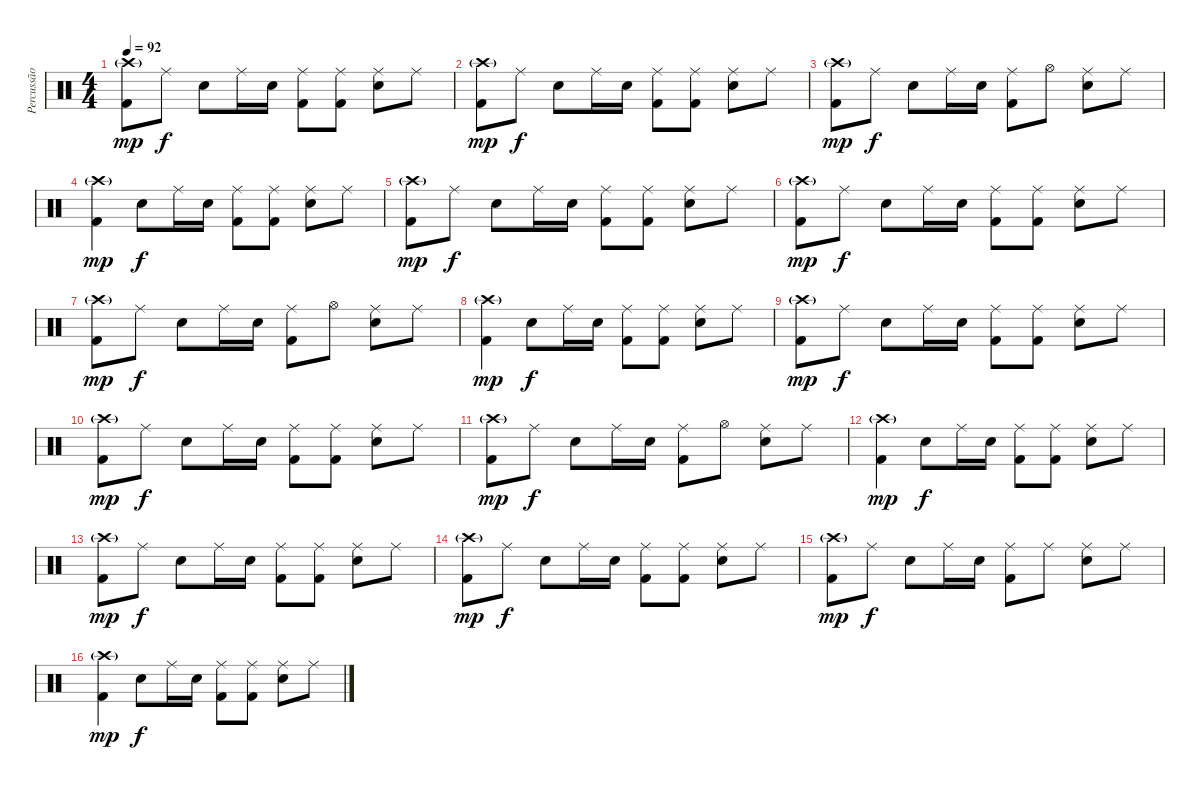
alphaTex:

\track ("Percussão - Drums" "Percussão ") {instrument percussion}
\staff {score}
\articulation defaults
\ts (4 4)
\tempo 92
\clef neutral
\ks c
("Crash high (hit)"{g} "Kick (hit) 2").8{dy mp} "Ride (middle)".8{dy f} "Snare (hit) 2".8 "Ride (middle)".16 "Snare (hit) 2".16 ("Ride (middle)" "Kick (hit) 2").8 ("Ride (middle)" "Kick (hit) 2").8 ("Ride (middle)" "Snare (hit) 2").8 "Ride (middle)".8 |
("Crash high (hit)"{g} "Kick (hit) 2").8{dy mp} "Ride (middle)".8{dy f} "Snare (hit) 2".8 "Ride (middle)".16 "Snare (hit) 2".16 ("Ride (middle)" "Kick (hit) 2").8 ("Ride (middle)" "Kick (hit) 2").8 ("Ride (middle)" "Snare (hit) 2").8 "Ride (middle)".8 |
("Crash high (hit)"{g} "Kick (hit) 2").8{dy mp} "Ride (middle)".8{dy f} "Snare (hit) 2".8 "Ride (middle)".16 "Snare (hit) 2".16 ("Ride (middle)" "Kick (hit) 2").8 "Hi-Hat (open)".8 ("Ride (middle)" "Snare (hit) 2").8 "Ride (middle)".8 |
("Crash high (hit)"{g} "Kick (hit) 2").4{dy mp} "Snare (hit) 2".8{dy f} "Ride (middle)".16 "Snare (hit) 2".16 ("Ride (middle)" "Kick (hit) 2").8 ("Ride (middle)" "Kick (hit) 2").8 ("Ride (middle)" "Snare (hit) 2").8 "Ride (middle)".8 |
("Crash high (hit)"{g} "Kick (hit) 2").8{dy mp} "Ride (middle)".8{dy f} "Snare (hit) 2".8 "Ride (middle)".16 "Snare (hit) 2".16 ("Ride (middle)" "Kick (hit) 2").8 ("Ride (middle)" "Kick (hit) 2").8 ("Ride (middle)" "Snare (hit) 2").8 "Ride (middle)".8 |
("Crash high (hit)"{g} "Kick (hit) 2").8{dy mp} "Ride (middle)".8{dy f} "Snare (hit) 2".8 "Ride (middle)".16 "Snare (hit) 2".16 ("Ride (middle)" "Kick (hit) 2").8 ("Ride (middle)" "Kick (hit) 2").8 ("Ride (middle)" "Snare (hit) 2").8 "Ride (middle)".8 |
("Crash high (hit)"{g} "Kick (hit) 2").8{dy mp} "Ride (middle)".8{dy f} "Snare (hit) 2".8 "Ride (middle)".16 "Snare (hit) 2".16 ("Ride (middle)" "Kick (hit) 2").8 "Hi-Hat (open)".8 ("Ride (middle)" "Snare (hit) 2").8 "Ride (middle)".8 |
("Crash high (hit)"{g} "Kick (hit) 2").4{dy mp} "Snare (hit) 2".8{dy f} "Ride (middle)".16 "Snare (hit) 2".16 ("Ride (middle)" "Kick (hit) 2").8 ("Ride (middle)" "Kick (hit) 2").8 ("Ride (middle)" "Snare (hit) 2").8 "Ride (middle)".8 |
("Crash high (hit)"{g} "Kick (hit) 2").8{dy mp} "Ride (middle)".8{dy f} "Snare (hit) 2".8 "Ride (middle)".16 "Snare (hit) 2".16 ("Ride (middle)" "Kick (hit) 2").8 ("Ride (middle)" "Kick (hit) 2").8 ("Ride (middle)" "Snare (hit) 2").8 "Ride (middle)".8 |
("Crash high (hit)"{g} "Kick (hit) 2").8{dy mp} "Ride (middle)".8{dy f} "Snare (hit) 2".8 "Ride (middle)".16 "Snare (hit) 2".16 ("Ride (middle)" "Kick (hit) 2").8 ("Ride (middle)" "Kick (hit) 2").8 ("Ride (middle)" "Snare (hit) 2").8 "Ride (middle)".8 |
("Crash high (hit)"{g} "Kick (hit) 2").8{dy mp} "Ride (middle)".8{dy f} "Snare (hit) 2".8 "Ride (middle)".16 "Snare (hit) 2".16 ("Ride (middle)" "Kick (hit) 2").8 "Hi-Hat (open)".8 ("Ride (middle)" "Snare (hit) 2").8 "Ride (middle)".8 |
("Crash high (hit)"{g} "Kick (hit) 2").4{dy mp} "Snare (hit) 2".8{dy f} "Ride (middle)".16 "Snare (hit) 2".16 ("Ride (middle)" "Kick (hit) 2").8 ("Ride (middle)" "Kick (hit) 2").8 ("Ride (middle)" "Snare (hit) 2").8 "Ride (middle)".8 |
("Crash high (hit)"{g} "Kick (hit) 2").8{dy mp} "Ride (middle)".8{dy f} "Snare (hit) 2".8 "Ride (middle)".16 "Snare (hit) 2".16 ("Ride (middle)" "Kick (hit) 2").8 ("Ride (middle)" "Kick (hit) 2").8 ("Ride (middle)" "Snare (hit) 2").8 "Ride (middle)".8 |
("Crash high (hit)"{g} "Kick (hit) 2").8{dy mp} "Ride (middle)".8{dy f} "Snare (hit) 2".8 "Ride (middle)".16 "Snare (hit) 2".16 ("Ride (middle)" "Kick (hit) 2").8 ("Ride (middle)" "Kick (hit) 2").8 ("Ride (middle)" "Snare (hit) 2").8 "Ride (middle)".8 |
("Crash high (hit)"{g} "Kick (hit) 2").8{dy mp} "Ride (middle)".8{dy f} "Snare (hit) 2".8 "Ride (middle)".16 "Snare (hit) 2".16 ("Ride (middle)" "Kick (hit) 2").8 "Ride (middle)".8 ("Ride (middle)" "Snare (hit) 2").8 "Ride (middle)".8 |
("Crash high (hit)"{g} "Kick (hit) 2").4{dy mp} "Snare (hit) 2".8{dy f} "Ride (middle)".16 "Snare (hit) 2".16 ("Ride (middle)" "Kick (hit) 2").8 ("Ride (middle)" "Kick (hit) 2").8 ("Ride (middle)" "Snare (hit) 2").8 "Ride (middle)".8
